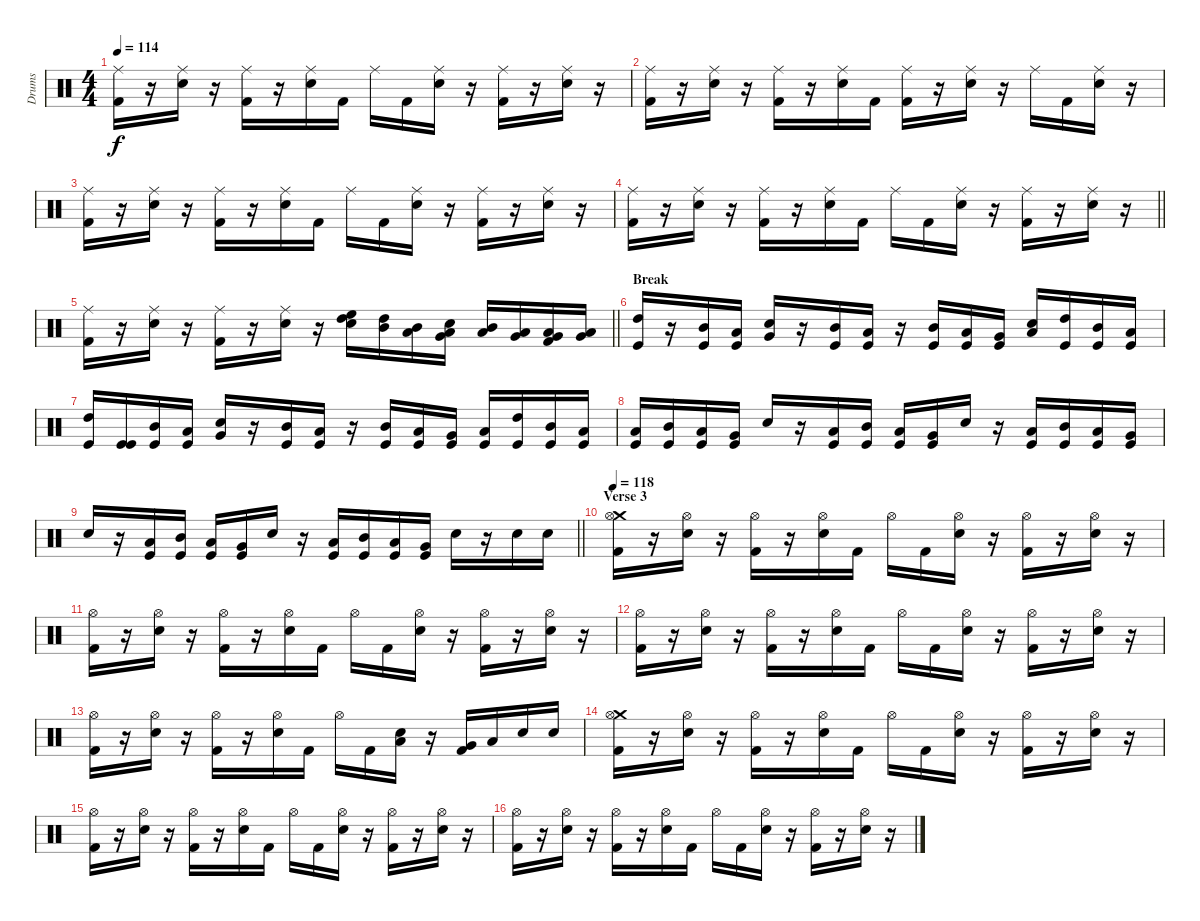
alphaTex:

\track ("Drums" "Drums") {instrument percussion}
\staff {score}
\articulation defaults
\ts (4 4)
\tempo 114
\clef neutral
\ks c
("Ride (middle)" "Kick (hit) 2").16{dy f} r.16 ("Ride (middle)" "Electric Snare (hit)").16 r.16 ("Ride (middle)" "Kick (hit) 2").16 r.16 ("Ride (middle)" "Electric Snare (hit)").16 "Kick (hit) 2".16 "Ride (middle)".16 "Kick (hit) 2".16 ("Ride (middle)" "Electric Snare (hit)").16 r.16 ("Ride (middle)" "Kick (hit) 2").16 r.16 ("Ride (middle)" "Electric Snare (hit)").16 r.16 |
("Ride (middle)" "Kick (hit) 2").16 r.16 ("Ride (middle)" "Electric Snare (hit)").16 r.16 ("Ride (middle)" "Kick (hit) 2").16 r.16 ("Ride (middle)" "Electric Snare (hit)").16 "Kick (hit) 2".16 ("Ride (middle)" "Kick (hit) 2").16 r.16 ("Ride (middle)" "Electric Snare (hit)").16 r.16 "Ride (middle)".16 "Kick (hit) 2".16 ("Ride (middle)" "Electric Snare (hit)").16 r.16 |
("Ride (middle)" "Kick (hit) 2").16 r.16 ("Ride (middle)" "Electric Snare (hit)").16 r.16 ("Ride (middle)" "Kick (hit) 2").16 r.16 ("Ride (middle)" "Electric Snare (hit)").16 "Kick (hit) 2".16 "Ride (middle)".16 "Kick (hit) 2".16 ("Ride (middle)" "Electric Snare (hit)").16 r.16 ("Ride (middle)" "Kick (hit) 2").16 r.16 ("Ride (middle)" "Electric Snare (hit)").16 r.16 |
\barLineRight lightlight
("Ride (middle)" "Kick (hit) 2").16 r.16 ("Ride (middle)" "Electric Snare (hit)").16 r.16 ("Ride (middle)" "Kick (hit) 2").16 r.16 ("Ride (middle)" "Electric Snare (hit)").16 "Kick (hit) 2".16 "Ride (middle)".16 "Kick (hit) 2".16 ("Ride (middle)" "Electric Snare (hit)").16 r.16 ("Ride (middle)" "Kick (hit) 2").16 r.16 ("Ride (middle)" "Electric Snare (hit)").16 r.16 |
\barLineRight lightlight
("Ride (middle)" "Kick (hit) 2").16 r.16 ("Ride (middle)" "Electric Snare (hit)").16 r.16 ("Ride (middle)" "Kick (hit) 2").16 r.16 ("Ride (middle)" "Electric Snare (hit)").16 r.16 ("High Tom (hit)" "High Floor Tom (hit)" "Electric Snare (hit)").16 ("Mid Tom (hit)" "High Tom (hit)").16 ("Low Tom (hit)" "Mid Tom (hit)").16 ("Very Low Tom (hit)" "Low Tom (hit)" "Electric Snare (hit)").16 ("Low Floor Tom (hit)" "Mid Tom (hit)").16 ("Very Low Tom (hit)" "Low Tom (hit)").16 ("Low Tom (hit)" "Very Low Tom (hit)" "Kick (hit) 2").16 ("Very Low Tom (hit)" "Low Floor Tom (hit)").16 |
\section ("" "Break")
("High Tom (hit)" "Kick (hit)").16 r.16 ("Mid Tom (hit)" "Kick (hit)").16 ("Low Tom (hit)" "Kick (hit)").16 ("Very Low Tom (hit)" "Electric Snare (hit)").16 r.16 ("Mid Tom (hit)" "Kick (hit)").16 ("Low Tom (hit)" "Kick (hit)").16 r.16 ("Mid Tom (hit)" "Kick (hit)").16 ("Low Tom (hit)" "Kick (hit)").16 ("Very Low Tom (hit)" "Kick (hit)").16 ("Low Floor Tom (hit)" "Electric Snare (hit)").16 ("High Tom (hit)" "Kick (hit)").16 ("Mid Tom (hit)" "Kick (hit)").16 ("Low Tom (hit)" "Kick (hit)").16 |
("High Tom (hit)" "Kick (hit)").16 ("Kick (hit)" "Kick (hit)").16 ("Mid Tom (hit)" "Kick (hit)").16 ("Low Tom (hit)" "Kick (hit)").16 ("Very Low Tom (hit)" "Electric Snare (hit)").16 r.16 ("Mid Tom (hit)" "Kick (hit)").16 ("Low Tom (hit)" "Kick (hit)").16 r.16 ("Mid Tom (hit)" "Kick (hit)").16 ("Low Tom (hit)" "Kick (hit)").16 ("Very Low Tom (hit)" "Kick (hit)").16 ("Low Floor Tom (hit)" "Kick (hit)").16 ("High Tom (hit)" "Kick (hit)").16 ("Mid Tom (hit)" "Kick (hit)").16 ("Low Tom (hit)" "Kick (hit)").16 |
("Low Tom (hit)" "Kick (hit)").16 ("Mid Tom (hit)" "Kick (hit)").16 ("Low Tom (hit)" "Kick (hit)").16 ("Very Low Tom (hit)" "Kick (hit)").16 "Electric Snare (hit)".16 r.16 ("Low Tom (hit)" "Kick (hit)").16 ("Mid Tom (hit)" "Kick (hit)").16 ("Low Tom (hit)" "Kick (hit)").16 ("Very Low Tom (hit)" "Kick (hit)").16 "Electric Snare (hit)".16 r.16 ("Low Tom (hit)" "Kick (hit)").16 ("Mid Tom (hit)" "Kick (hit)").16 ("Low Tom (hit)" "Kick (hit)").16 ("Very Low Tom (hit)" "Kick (hit)").16 |
\barLineRight lightlight "Electric Snare (hit)".16
r.16 ("Low Tom (hit)" "Kick (hit)").16 ("Mid Tom (hit)" "Kick (hit)").16 ("Low Tom (hit)" "Kick (hit)").16 ("Very Low Tom (hit)" "Kick (hit)").16 "Electric Snare (hit)".16 r.16 ("Low Tom (hit)" "Kick (hit)").16 ("Mid Tom (hit)" "Kick (hit)").16 ("Low Tom (hit)" "Kick (hit)").16 ("Very Low Tom (hit)" "Kick (hit)").16 "Electric Snare (hit)".16 r.16 "Electric Snare (hit)".16 "Electric Snare (hit)".16 |
\section ("" "Verse 3")
\tempo 118
("Crash medium (hit)" "Hi-Hat (open)" "Kick (hit) 2").16 r.16 ("Hi-Hat (open)" "Electric Snare (hit)").16 r.16 ("Hi-Hat (open)" "Kick (hit) 2").16 r.16 ("Hi-Hat (open)" "Electric Snare (hit)").16 "Kick (hit) 2".16 "Hi-Hat (open)".16 "Kick (hit) 2".16 ("Hi-Hat (open)" "Electric Snare (hit)").16 r.16 ("Hi-Hat (open)" "Kick (hit) 2").16 r.16 ("Hi-Hat (open)" "Electric Snare (hit)").16 r.16 |
("Hi-Hat (open)" "Kick (hit) 2").16 r.16 ("Hi-Hat (open)" "Electric Snare (hit)").16 r.16 ("Hi-Hat (open)" "Kick (hit) 2").16 r.16 ("Hi-Hat (open)" "Electric Snare (hit)").16 "Kick (hit) 2".16 "Hi-Hat (open)".16 "Kick (hit) 2".16 ("Hi-Hat (open)" "Electric Snare (hit)").16 r.16 ("Hi-Hat (open)" "Kick (hit) 2").16 r.16 ("Hi-Hat (open)" "Electric Snare (hit)").16 r.16 |
("Hi-Hat (open)" "Kick (hit) 2").16 r.16 ("Hi-Hat (open)" "Electric Snare (hit)").16 r.16 ("Hi-Hat (open)" "Kick (hit) 2").16 r.16 ("Hi-Hat (open)" "Electric Snare (hit)").16 "Kick (hit) 2".16 "Hi-Hat (open)".16 "Kick (hit) 2".16 ("Hi-Hat (open)" "Electric Snare (hit)").16 r.16 ("Hi-Hat (open)" "Kick (hit) 2").16 r.16 ("Hi-Hat (open)" "Electric Snare (hit)").16 r.16 |
("Hi-Hat (open)" "Kick (hit) 2").16 r.16 ("Hi-Hat (open)" "Electric Snare (hit)").16 r.16 ("Hi-Hat (open)" "Kick (hit) 2").16 r.16 ("Hi-Hat (open)" "Electric Snare (hit)").16 "Kick (hit) 2".16 "Hi-Hat (open)".16 "Kick (hit) 2".16 ("Low Tom (hit)" "Electric Snare (hit)").16 r.16 ("Very Low Tom (hit)" "Kick (hit) 2").16 "Low Floor Tom (hit)".16 "Electric Snare (hit)".16 "Electric Snare (hit)".16 |
("Crash medium (hit)" "Hi-Hat (open)" "Kick (hit) 2").16 r.16 ("Hi-Hat (open)" "Electric Snare (hit)").16 r.16 ("Hi-Hat (open)" "Kick (hit) 2").16 r.16 ("Hi-Hat (open)" "Electric Snare (hit)").16 "Kick (hit) 2".16 "Hi-Hat (open)".16 "Kick (hit) 2".16 ("Hi-Hat (open)" "Electric Snare (hit)").16 r.16 ("Hi-Hat (open)" "Kick (hit) 2").16 r.16 ("Hi-Hat (open)" "Electric Snare (hit)").16 r.16 |
("Hi-Hat (open)" "Kick (hit) 2").16 r.16 ("Hi-Hat (open)" "Electric Snare (hit)").16 r.16 ("Hi-Hat (open)" "Kick (hit) 2").16 r.16 ("Hi-Hat (open)" "Electric Snare (hit)").16 "Kick (hit) 2".16 "Hi-Hat (open)".16 "Kick (hit) 2".16 ("Hi-Hat (open)" "Electric Snare (hit)").16 r.16 ("Hi-Hat (open)" "Kick (hit) 2").16 r.16 ("Hi-Hat (open)" "Electric Snare (hit)").16 r.16 |
("Hi-Hat (open)" "Kick (hit) 2").16 r.16 ("Hi-Hat (open)" "Electric Snare (hit)").16 r.16 ("Hi-Hat (open)" "Kick (hit) 2").16 r.16 ("Hi-Hat (open)" "Electric Snare (hit)").16 "Kick (hit) 2".16 "Hi-Hat (open)".16 "Kick (hit) 2".16 ("Hi-Hat (open)" "Electric Snare (hit)").16 r.16 ("Hi-Hat (open)" "Kick (hit) 2").16 r.16 ("Hi-Hat (open)" "Electric Snare (hit)").16 r.16
